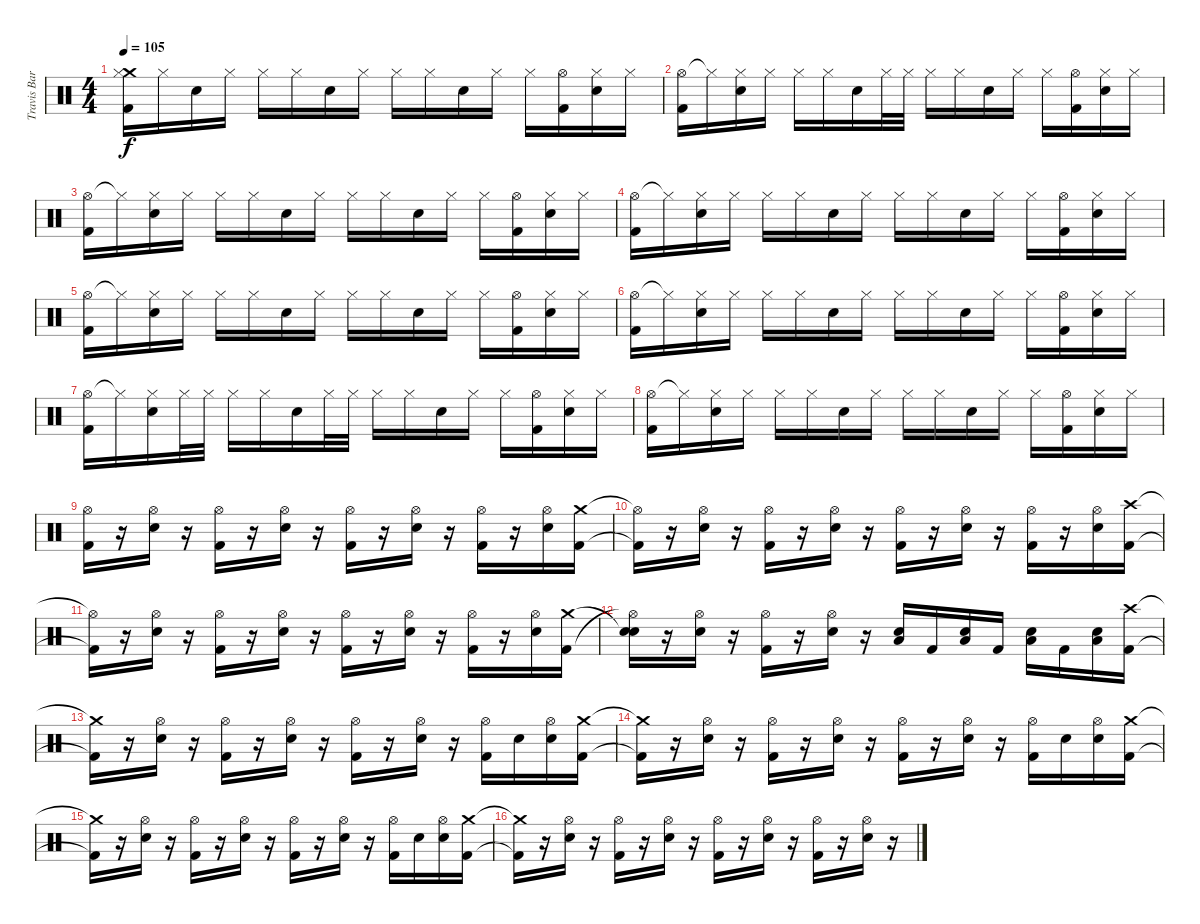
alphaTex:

\track ("Travis Barker" "Travis Bar") {instrument percussion}
\staff {score}
\articulation defaults
\ts (4 4)
\tempo 105
\clef neutral
\ks c
("Crash medium (hit)" "Hi-Hat (closed)" "Kick (hit) 2").16{dy f} "Hi-Hat (closed)".16 "Electric Snare (hit)".16 "Hi-Hat (closed)".16 "Hi-Hat (closed)".16 "Hi-Hat (closed)".16 "Electric Snare (hit)".16 "Hi-Hat (closed)".16 "Hi-Hat (closed)".16 "Hi-Hat (closed)".16 "Electric Snare (hit)".16 "Hi-Hat (closed)".16 "Hi-Hat (closed)".16 ("Hi-Hat (open)" "Kick (hit) 2").16 ("Hi-Hat (closed)" "Electric Snare (hit)").16 "Hi-Hat (closed)".16 |
("Hi-Hat (open)" "Kick (hit) 2").16 "Hi-Hat (closed)"{t}.16 ("Hi-Hat (closed)" "Electric Snare (hit)").16 "Hi-Hat (closed)".16 "Hi-Hat (closed)".16 "Hi-Hat (closed)".16 "Electric Snare (hit)".16 "Hi-Hat (closed)".32 "Hi-Hat (closed)".32 "Hi-Hat (closed)".16 "Hi-Hat (closed)".16 "Electric Snare (hit)".16 "Hi-Hat (closed)".16 "Hi-Hat (closed)".16 ("Hi-Hat (open)" "Kick (hit) 2").16 ("Hi-Hat (closed)" "Electric Snare (hit)").16 "Hi-Hat (closed)".16 |
("Hi-Hat (open)" "Kick (hit) 2").16 "Hi-Hat (closed)"{t}.16 ("Hi-Hat (closed)" "Electric Snare (hit)").16 "Hi-Hat (closed)".16 "Hi-Hat (closed)".16 "Hi-Hat (closed)".16 "Electric Snare (hit)".16 "Hi-Hat (closed)".16 "Hi-Hat (closed)".16 "Hi-Hat (closed)".16 "Electric Snare (hit)".16 "Hi-Hat (closed)".16 "Hi-Hat (closed)".16 ("Hi-Hat (open)" "Kick (hit) 2").16 ("Hi-Hat (closed)" "Electric Snare (hit)").16 "Hi-Hat (closed)".16 |
("Hi-Hat (open)" "Kick (hit) 2").16 "Hi-Hat (closed)"{t}.16 ("Hi-Hat (closed)" "Electric Snare (hit)").16 "Hi-Hat (closed)".16 "Hi-Hat (closed)".16 "Hi-Hat (closed)".16 "Electric Snare (hit)".16 "Hi-Hat (closed)".16 "Hi-Hat (closed)".16 "Hi-Hat (closed)".16 "Electric Snare (hit)".16 "Hi-Hat (closed)".16 "Hi-Hat (closed)".16 ("Hi-Hat (open)" "Kick (hit) 2").16 ("Hi-Hat (closed)" "Electric Snare (hit)").16 "Hi-Hat (closed)".16 |
("Hi-Hat (open)" "Kick (hit) 2").16 "Hi-Hat (closed)"{t}.16 ("Hi-Hat (closed)" "Electric Snare (hit)").16 "Hi-Hat (closed)".16 "Hi-Hat (closed)".16 "Hi-Hat (closed)".16 "Electric Snare (hit)".16 "Hi-Hat (closed)".16 "Hi-Hat (closed)".16 "Hi-Hat (closed)".16 "Electric Snare (hit)".16 "Hi-Hat (closed)".16 "Hi-Hat (closed)".16 ("Hi-Hat (open)" "Kick (hit) 2").16 ("Hi-Hat (closed)" "Electric Snare (hit)").16 "Hi-Hat (closed)".16 |
("Hi-Hat (open)" "Kick (hit) 2").16 "Hi-Hat (closed)"{t}.16 ("Hi-Hat (closed)" "Electric Snare (hit)").16 "Hi-Hat (closed)".16 "Hi-Hat (closed)".16 "Hi-Hat (closed)".16 "Electric Snare (hit)".16 "Hi-Hat (closed)".16 "Hi-Hat (closed)".16 "Hi-Hat (closed)".16 "Electric Snare (hit)".16 "Hi-Hat (closed)".16 "Hi-Hat (closed)".16 ("Hi-Hat (open)" "Kick (hit) 2").16 ("Hi-Hat (closed)" "Electric Snare (hit)").16 "Hi-Hat (closed)".16 |
("Hi-Hat (open)" "Kick (hit) 2").16 "Hi-Hat (closed)"{t}.16 ("Hi-Hat (closed)" "Electric Snare (hit)").16 "Hi-Hat (closed)".32 "Hi-Hat (closed)".32 "Hi-Hat (closed)".16 "Hi-Hat (closed)".16 "Electric Snare (hit)".16 "Hi-Hat (closed)".32 "Hi-Hat (closed)".32 "Hi-Hat (closed)".16 "Hi-Hat (closed)".16 "Electric Snare (hit)".16 "Hi-Hat (closed)".16 "Hi-Hat (closed)".16 ("Hi-Hat (open)" "Kick (hit) 2").16 ("Hi-Hat (closed)" "Electric Snare (hit)").16 "Hi-Hat (closed)".16 |
("Hi-Hat (open)" "Kick (hit) 2").16 "Hi-Hat (closed)"{t}.16 ("Hi-Hat (closed)" "Electric Snare (hit)").16 "Hi-Hat (closed)".16 "Hi-Hat (closed)".16 "Hi-Hat (closed)".16 "Electric Snare (hit)".16 "Hi-Hat (closed)".16 "Hi-Hat (closed)".16 "Hi-Hat (closed)".16 "Electric Snare (hit)".16 "Hi-Hat (closed)".16 "Hi-Hat (closed)".16 ("Hi-Hat (open)" "Kick (hit) 2").16 ("Hi-Hat (closed)" "Electric Snare (hit)").16 "Hi-Hat (closed)".16 |
("Hi-Hat (open)" "Kick (hit) 2").16 r.16 ("Hi-Hat (open)" "Electric Snare (hit)").16 r.16 ("Hi-Hat (open)" "Kick (hit) 2").16 r.16 ("Hi-Hat (open)" "Electric Snare (hit)").16 r.16 ("Hi-Hat (open)" "Kick (hit) 2").16 r.16 ("Hi-Hat (open)" "Electric Snare (hit)").16 r.16 ("Hi-Hat (open)" "Kick (hit) 2").16 r.16 ("Hi-Hat (open)" "Electric Snare (hit)").16 ("Crash medium (hit)" "Kick (hit) 2").16 |
("Hi-Hat (open)"{t} "Kick (hit) 2"{t}).16 r.16 ("Hi-Hat (open)" "Electric Snare (hit)").16 r.16 ("Hi-Hat (open)" "Kick (hit) 2").16 r.16 ("Hi-Hat (open)" "Electric Snare (hit)").16 r.16 ("Hi-Hat (open)" "Kick (hit) 2").16 r.16 ("Hi-Hat (open)" "Electric Snare (hit)").16 r.16 ("Hi-Hat (open)" "Kick (hit) 2").16 r.16 ("Hi-Hat (open)" "Electric Snare (hit)").16 ("Crash high (hit)" "Kick (hit) 2").16 |
("Hi-Hat (open)"{t} "Kick (hit) 2"{t}).16 r.16 ("Hi-Hat (open)" "Electric Snare (hit)").16 r.16 ("Hi-Hat (open)" "Kick (hit) 2").16 r.16 ("Hi-Hat (open)" "Electric Snare (hit)").16 r.16 ("Hi-Hat (open)" "Kick (hit) 2").16 r.16 ("Hi-Hat (open)" "Electric Snare (hit)").16 r.16 ("Hi-Hat (open)" "Kick (hit) 2").16 r.16 ("Hi-Hat (open)" "Electric Snare (hit)").16 ("Crash medium (hit)" "Kick (hit) 2").16 |
("Snare (hit)"{t} "Hi-Hat (open)"{t} "Snare (hit)").16 r.16 ("Hi-Hat (open)" "Electric Snare (hit)").16 r.16 ("Hi-Hat (open)" "Kick (hit) 2").16 r.16 ("Hi-Hat (open)" "Electric Snare (hit)").16 r.16 ("Low Tom (hit)" "Electric Snare (hit)").16 "Kick (hit) 2".16 ("Low Tom (hit)" "Electric Snare (hit)").16 "Kick (hit) 2".16 ("Low Tom (hit)" "Electric Snare (hit)").16 "Kick (hit) 2".16 ("Low Tom (hit)" "Electric Snare (hit)").16 ("Crash high (hit)" "Kick (hit) 2").16 |
("Crash medium (hit)"{t} "Kick (hit) 2"{t}).16 r.16 ("Hi-Hat (open)" "Electric Snare (hit)").16 r.16 ("Hi-Hat (open)" "Kick (hit) 2").16 r.16 ("Hi-Hat (open)" "Electric Snare (hit)").16 r.16 ("Hi-Hat (open)" "Kick (hit) 2").16 r.16 ("Hi-Hat (open)" "Electric Snare (hit)").16 r.16 ("Hi-Hat (open)" "Kick (hit) 2").16 "Electric Snare (hit)".16 ("Hi-Hat (open)" "Electric Snare (hit)").16 ("Crash medium (hit)" "Kick (hit) 2").16 |
("Crash medium (hit)"{t} "Kick (hit) 2"{t}).16 r.16 ("Hi-Hat (open)" "Electric Snare (hit)").16 r.16 ("Hi-Hat (open)" "Kick (hit) 2").16 r.16 ("Hi-Hat (open)" "Electric Snare (hit)").16 r.16 ("Hi-Hat (open)" "Kick (hit) 2").16 r.16 ("Hi-Hat (open)" "Electric Snare (hit)").16 r.16 ("Hi-Hat (open)" "Kick (hit) 2").16 "Electric Snare (hit)".16 ("Hi-Hat (open)" "Electric Snare (hit)").16 ("Crash medium (hit)" "Kick (hit) 2").16 |
("Crash medium (hit)"{t} "Kick (hit) 2"{t}).16 r.16 ("Hi-Hat (open)" "Electric Snare (hit)").16 r.16 ("Hi-Hat (open)" "Kick (hit) 2").16 r.16 ("Hi-Hat (open)" "Electric Snare (hit)").16 r.16 ("Hi-Hat (open)" "Kick (hit) 2").16 r.16 ("Hi-Hat (open)" "Electric Snare (hit)").16 r.16 ("Hi-Hat (open)" "Kick (hit) 2").16 "Electric Snare (hit)".16 ("Hi-Hat (open)" "Electric Snare (hit)").16 ("Crash medium (hit)" "Kick (hit) 2").16 |
("Crash medium (hit)"{t} "Kick (hit) 2"{t}).16 r.16 ("Hi-Hat (open)" "Electric Snare (hit)").16 r.16 ("Hi-Hat (open)" "Kick (hit) 2").16 r.16 ("Hi-Hat (open)" "Electric Snare (hit)").16 r.16 ("Hi-Hat (open)" "Kick (hit) 2").16 r.16 ("Hi-Hat (open)" "Electric Snare (hit)").16 r.16 ("Hi-Hat (open)" "Kick (hit) 2").16 r.16 ("Hi-Hat (open)" "Electric Snare (hit)").16 r.16
